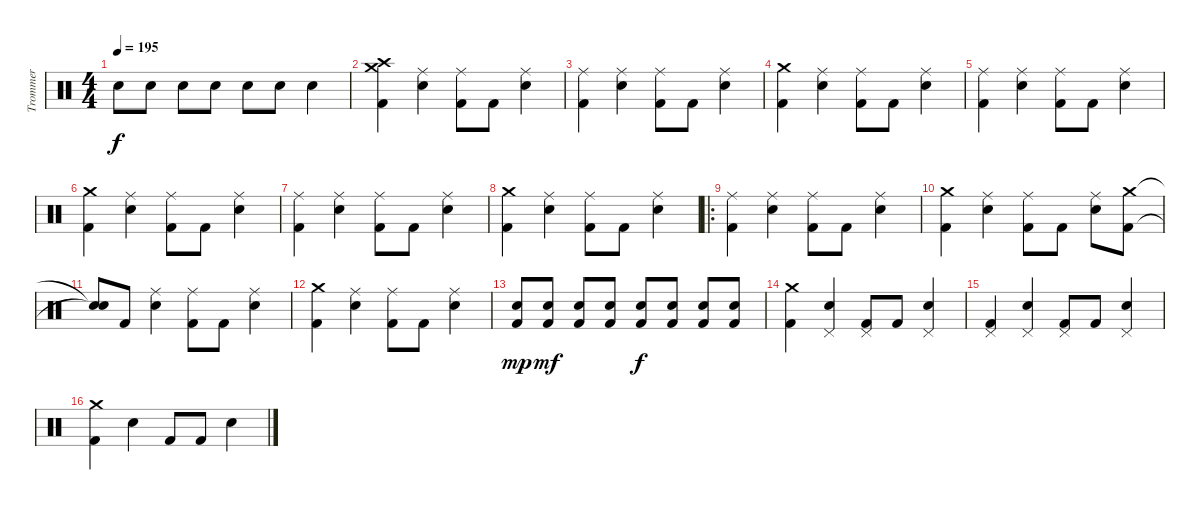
\track ("Trommer" "Trommer") {instrument percussion}
\staff {score}
\articulation defaults
\ts (4 4)
\tempo 195
\clef neutral
\ks c "Snare (hit) 2".8{dy f} "Snare (hit) 2".8 "Snare (hit) 2".8 "Snare (hit) 2".8 "Snare (hit) 2".8 "Snare (hit) 2".8 "Snare (hit) 2".4
|
("Kick (hit) 2" "Crash high (hit)" "Crash medium (hit)").4 ("Ride (middle)" "Snare (hit) 2").4 ("Ride (middle)" "Kick (hit) 2").8 "Kick (hit) 2".8 ("Ride (middle)" "Snare (hit) 2").4 |
("Ride (middle)" "Kick (hit) 2").4 ("Ride (middle)" "Snare (hit) 2").4 ("Ride (middle)" "Kick (hit) 2").8 "Kick (hit) 2".8 ("Ride (middle)" "Snare (hit) 2").4 |
("Kick (hit) 2" "Crash medium (hit)").4 ("Ride (middle)" "Snare (hit) 2").4 ("Ride (middle)" "Kick (hit) 2").8 "Kick (hit) 2".8 ("Ride (middle)" "Snare (hit) 2").4 |
("Ride (middle)" "Kick (hit) 2").4 ("Ride (middle)" "Snare (hit) 2").4 ("Ride (middle)" "Kick (hit) 2").8 "Kick (hit) 2".8 ("Ride (middle)" "Snare (hit) 2").4 |
("Kick (hit) 2" "Crash medium (hit)").4 ("Snare (hit) 2" "Ride (middle)").4 ("Kick (hit) 2" "Ride (middle)").8 "Kick (hit) 2".8 ("Ride (middle)" "Snare (hit) 2").4 |
("Kick (hit) 2" "Ride (middle)").4 ("Snare (hit) 2" "Ride (middle)").4 ("Kick (hit) 2" "Ride (middle)").8 "Kick (hit) 2".8 ("Snare (hit) 2" "Ride (middle)").4 |
("Kick (hit) 2" "Crash medium (hit)").4 ("Snare (hit) 2" "Ride (middle)").4 ("Kick (hit) 2" "Ride (middle)").8 "Kick (hit) 2".8 ("Snare (hit) 2" "Ride (middle)").4 |
\ro
("Kick (hit) 2" "Ride (middle)").4 ("Snare (hit) 2" "Ride (middle)").4 ("Kick (hit) 2" "Ride (middle)").8 "Kick (hit) 2".8 ("Snare (hit) 2" "Ride (middle)").4 |
("Kick (hit) 2" "Crash medium (hit)").4 ("Ride (middle)" "Snare (hit) 2").4 ("Ride (middle)" "Kick (hit) 2").8 "Kick (hit) 2".8 ("Ride (middle)" "Snare (hit) 2").8 ("Crash medium (hit)" "Kick (hit) 2").8 |
("Snare (hit)"{t} "Snare (hit)"{t}).8 "Kick (hit) 2".8 ("Ride (middle)" "Snare (hit) 2").4 ("Ride (middle)" "Kick (hit) 2").8 "Kick (hit) 2".8 ("Ride (middle)" "Snare (hit) 2").4 |
("Kick (hit) 2" "Crash medium (hit)").4 ("Snare (hit) 2" "Ride (middle)").4 ("Kick (hit) 2" "Ride (middle)").8 "Kick (hit) 2".8 ("Snare (hit) 2" "Ride (middle)").4 |
("Kick (hit) 2" "Snare (hit) 2").8{dy mp} ("Kick (hit) 2" "Snare (hit) 2").8{dy mf} ("Kick (hit) 2" "Snare (hit) 2").8 ("Kick (hit) 2" "Snare (hit) 2").8 ("Kick (hit) 2" "Snare (hit) 2").8{dy f} ("Kick (hit) 2" "Snare (hit) 2").8 ("Kick (hit) 2" "Snare (hit) 2").8 ("Kick (hit) 2" "Snare (hit) 2").8 |
("Kick (hit) 2" "Crash medium (hit)").4 ("Pedal Hi-Hat (hit)" "Snare (hit) 2").4 ("Pedal Hi-Hat (hit)" "Kick (hit) 2").8 "Kick (hit) 2".8 ("Pedal Hi-Hat (hit)" "Snare (hit) 2").4 |
("Pedal Hi-Hat (hit)" "Kick (hit) 2").4 ("Pedal Hi-Hat (hit)" "Snare (hit) 2").4 ("Pedal Hi-Hat (hit)" "Kick (hit) 2").8 "Kick (hit) 2".8 ("Pedal Hi-Hat (hit)" "Snare (hit) 2").4 |
("Kick (hit) 2" "Crash medium (hit)").4 "Snare (hit) 2".4 "Kick (hit) 2".8 "Kick (hit) 2".8 "Snare (hit) 2".4
